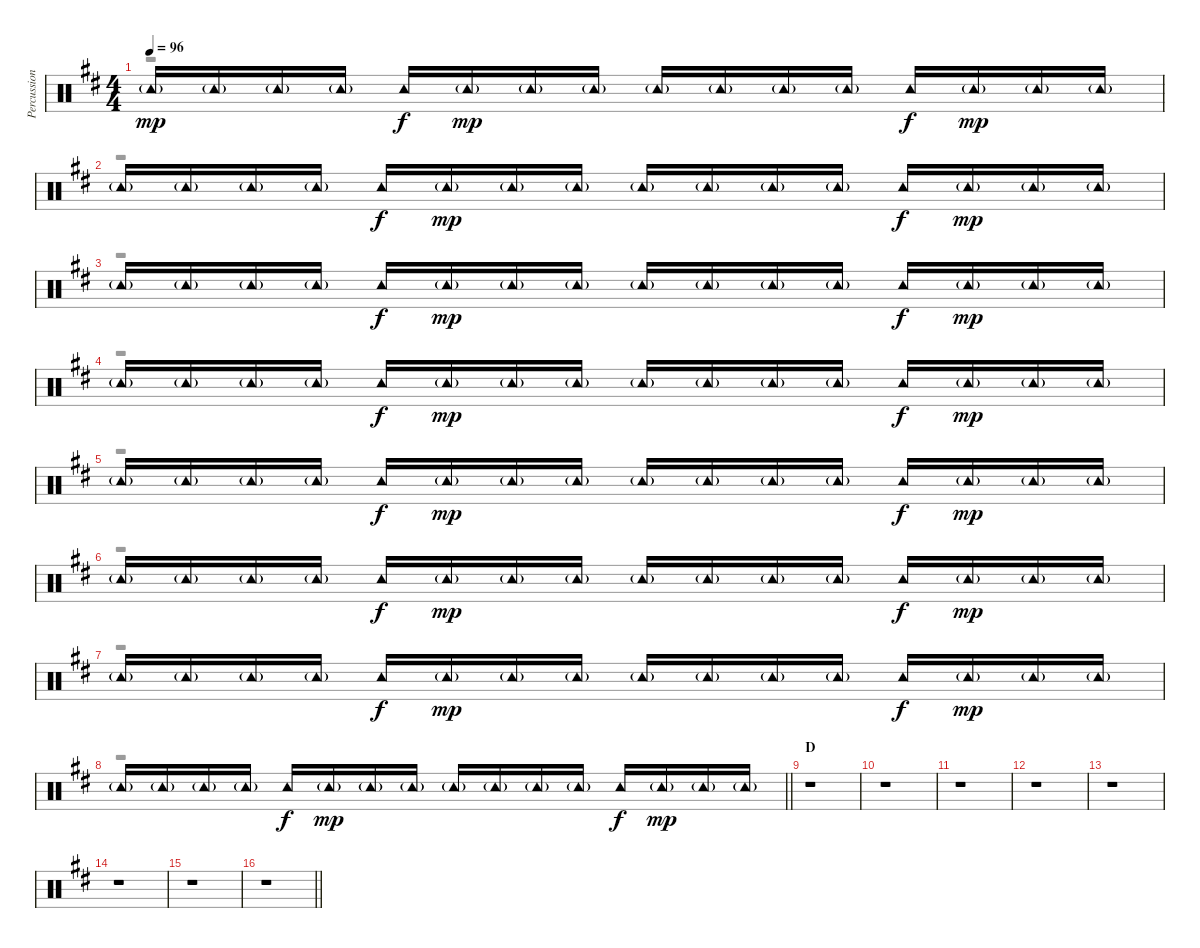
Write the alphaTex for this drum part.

\track ("Percussion" "Percussion") {instrument percussion}
\staff {score}
\articulation defaults
\voice
\ts (4 4)
\tempo 96
\clef neutral
\ks d "Tambourine (hit)"{g}.16{dy mp} "Tambourine (hit)"{g}.16 "Tambourine (hit)"{g}.16 "Tambourine (hit)"{g}.16 "Tambourine (hit)".16{dy f} "Tambourine (hit)"{g}.16{dy mp} "Tambourine (hit)"{g}.16 "Tambourine (hit)"{g}.16 "Tambourine (hit)"{g}.16 "Tambourine (hit)"{g}.16 "Tambourine (hit)"{g}.16 "Tambourine (hit)"{g}.16 "Tambourine (hit)".16{dy f} "Tambourine (hit)"{g}.16{dy mp} "Tambourine (hit)"{g}.16 "Tambourine (hit)"{g}.16
|
"Tambourine (hit)"{g}.16 "Tambourine (hit)"{g}.16 "Tambourine (hit)"{g}.16 "Tambourine (hit)"{g}.16 "Tambourine (hit)".16{dy f} "Tambourine (hit)"{g}.16{dy mp} "Tambourine (hit)"{g}.16 "Tambourine (hit)"{g}.16 "Tambourine (hit)"{g}.16 "Tambourine (hit)"{g}.16 "Tambourine (hit)"{g}.16 "Tambourine (hit)"{g}.16 "Tambourine (hit)".16{dy f} "Tambourine (hit)"{g}.16{dy mp} "Tambourine (hit)"{g}.16 "Tambourine (hit)"{g}.16 |
"Tambourine (hit)"{g}.16 "Tambourine (hit)"{g}.16 "Tambourine (hit)"{g}.16 "Tambourine (hit)"{g}.16 "Tambourine (hit)".16{dy f} "Tambourine (hit)"{g}.16{dy mp} "Tambourine (hit)"{g}.16 "Tambourine (hit)"{g}.16 "Tambourine (hit)"{g}.16 "Tambourine (hit)"{g}.16 "Tambourine (hit)"{g}.16 "Tambourine (hit)"{g}.16 "Tambourine (hit)".16{dy f} "Tambourine (hit)"{g}.16{dy mp} "Tambourine (hit)"{g}.16 "Tambourine (hit)"{g}.16 |
"Tambourine (hit)"{g}.16 "Tambourine (hit)"{g}.16 "Tambourine (hit)"{g}.16 "Tambourine (hit)"{g}.16 "Tambourine (hit)".16{dy f} "Tambourine (hit)"{g}.16{dy mp} "Tambourine (hit)"{g}.16 "Tambourine (hit)"{g}.16 "Tambourine (hit)"{g}.16 "Tambourine (hit)"{g}.16 "Tambourine (hit)"{g}.16 "Tambourine (hit)"{g}.16 "Tambourine (hit)".16{dy f} "Tambourine (hit)"{g}.16{dy mp} "Tambourine (hit)"{g}.16 "Tambourine (hit)"{g}.16 |
"Tambourine (hit)"{g}.16 "Tambourine (hit)"{g}.16 "Tambourine (hit)"{g}.16 "Tambourine (hit)"{g}.16 "Tambourine (hit)".16{dy f} "Tambourine (hit)"{g}.16{dy mp} "Tambourine (hit)"{g}.16 "Tambourine (hit)"{g}.16 "Tambourine (hit)"{g}.16 "Tambourine (hit)"{g}.16 "Tambourine (hit)"{g}.16 "Tambourine (hit)"{g}.16 "Tambourine (hit)".16{dy f} "Tambourine (hit)"{g}.16{dy mp} "Tambourine (hit)"{g}.16 "Tambourine (hit)"{g}.16 |
"Tambourine (hit)"{g}.16 "Tambourine (hit)"{g}.16 "Tambourine (hit)"{g}.16 "Tambourine (hit)"{g}.16 "Tambourine (hit)".16{dy f} "Tambourine (hit)"{g}.16{dy mp} "Tambourine (hit)"{g}.16 "Tambourine (hit)"{g}.16 "Tambourine (hit)"{g}.16 "Tambourine (hit)"{g}.16 "Tambourine (hit)"{g}.16 "Tambourine (hit)"{g}.16 "Tambourine (hit)".16{dy f} "Tambourine (hit)"{g}.16{dy mp} "Tambourine (hit)"{g}.16 "Tambourine (hit)"{g}.16 |
"Tambourine (hit)"{g}.16 "Tambourine (hit)"{g}.16 "Tambourine (hit)"{g}.16 "Tambourine (hit)"{g}.16 "Tambourine (hit)".16{dy f} "Tambourine (hit)"{g}.16{dy mp} "Tambourine (hit)"{g}.16 "Tambourine (hit)"{g}.16 "Tambourine (hit)"{g}.16 "Tambourine (hit)"{g}.16 "Tambourine (hit)"{g}.16 "Tambourine (hit)"{g}.16 "Tambourine (hit)".16{dy f} "Tambourine (hit)"{g}.16{dy mp} "Tambourine (hit)"{g}.16 "Tambourine (hit)"{g}.16 |
\barLineRight lightlight "Tambourine (hit)"{g}.16 "Tambourine (hit)"{g}.16 "Tambourine (hit)"{g}.16 "Tambourine (hit)"{g}.16 "Tambourine (hit)".16{dy f} "Tambourine (hit)"{g}.16{dy mp} "Tambourine (hit)"{g}.16 "Tambourine (hit)"{g}.16 "Tambourine (hit)"{g}.16 "Tambourine (hit)"{g}.16 "Tambourine (hit)"{g}.16 "Tambourine (hit)"{g}.16 "Tambourine (hit)".16{dy f} "Tambourine (hit)"{g}.16{dy mp} "Tambourine (hit)"{g}.16 "Tambourine (hit)"{g}.16
|
\section ("" "D")
r.1 |
r.1 |
r.1 |
r.1 |
r.1 |
r.1 |
r.1 |
\barLineRight lightlight
r.1
\voice
\clef neutral
\ottava regular
\simile none
\ks d
r.1{dy fff} |
r.1 |
r.1 |
r.1 |
r.1 |
r.1 |
r.1 |
\barLineRight lightlight
r.1 |
r.1 |
r.1 |
r.1 |
r.1 |
r.1 |
r.1 |
r.1 |
\barLineRight lightlight
r.1
